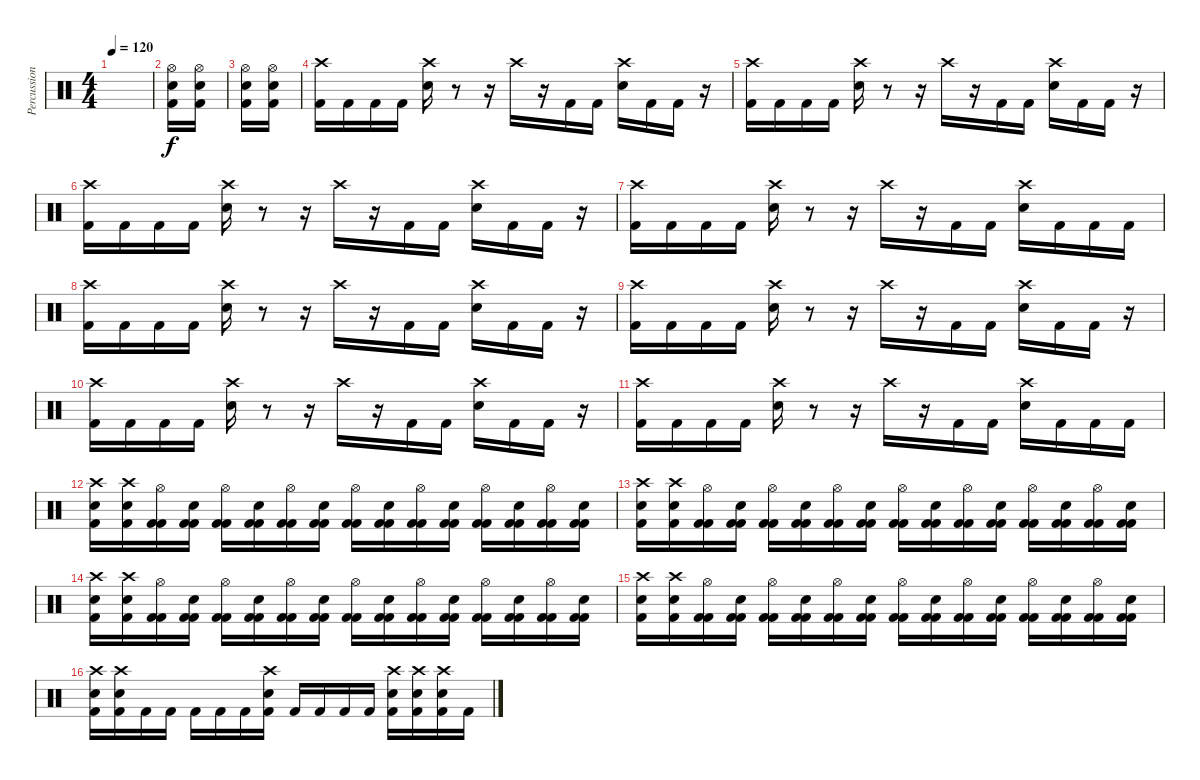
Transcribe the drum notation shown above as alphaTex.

\track ("Percussion" "Percussion") {instrument percussion}
\staff {score}
\articulation defaults
\ts (4 4)
\tempo 120
\clef neutral
\ks c
|
("Hi-Hat (open)" "Kick (hit) 2" "Electric Snare (hit)").16 ("Hi-Hat (open)" "Kick (hit) 2" "Electric Snare (hit)").16 |
("Hi-Hat (open)" "Kick (hit) 2" "Electric Snare (hit)").16 ("Hi-Hat (open)" "Kick (hit) 2" "Electric Snare (hit)").16 |
("Crash high (hit)" "Kick (hit) 2").16 "Kick (hit) 2".16 "Kick (hit) 2".16 "Kick (hit) 2".16 ("Crash high (hit)" "Electric Snare (hit)").16 r.8 r.16 "Crash high (hit)".16 r.16 "Kick (hit) 2".16 "Kick (hit) 2".16 ("Crash high (hit)" "Electric Snare (hit)").16 "Kick (hit) 2".16 "Kick (hit) 2".16 r.16 |
("Crash high (hit)" "Kick (hit) 2").16 "Kick (hit) 2".16 "Kick (hit) 2".16 "Kick (hit) 2".16 ("Crash high (hit)" "Electric Snare (hit)").16 r.8 r.16 "Crash high (hit)".16 r.16 "Kick (hit) 2".16 "Kick (hit) 2".16 ("Crash high (hit)" "Electric Snare (hit)").16 "Kick (hit) 2".16 "Kick (hit) 2".16 r.16 |
("Crash high (hit)" "Kick (hit) 2").16 "Kick (hit) 2".16 "Kick (hit) 2".16 "Kick (hit) 2".16 ("Crash high (hit)" "Electric Snare (hit)").16 r.8 r.16 "Crash high (hit)".16 r.16 "Kick (hit) 2".16 "Kick (hit) 2".16 ("Crash high (hit)" "Electric Snare (hit)").16 "Kick (hit) 2".16 "Kick (hit) 2".16 r.16 |
("Crash high (hit)" "Kick (hit) 2").16 "Kick (hit) 2".16 "Kick (hit) 2".16 "Kick (hit) 2".16 ("Crash high (hit)" "Electric Snare (hit)").16 r.8 r.16 "Crash high (hit)".16 r.16 "Kick (hit) 2".16 "Kick (hit) 2".16 ("Crash high (hit)" "Electric Snare (hit)").16 "Kick (hit) 2".16 "Kick (hit) 2".16 "Kick (hit) 2".16 |
("Crash high (hit)" "Kick (hit) 2").16 "Kick (hit) 2".16 "Kick (hit) 2".16 "Kick (hit) 2".16 ("Crash high (hit)" "Electric Snare (hit)").16 r.8 r.16 "Crash high (hit)".16 r.16 "Kick (hit) 2".16 "Kick (hit) 2".16 ("Crash high (hit)" "Electric Snare (hit)").16 "Kick (hit) 2".16 "Kick (hit) 2".16 r.16 |
("Crash high (hit)" "Kick (hit) 2").16 "Kick (hit) 2".16 "Kick (hit) 2".16 "Kick (hit) 2".16 ("Crash high (hit)" "Electric Snare (hit)").16 r.8 r.16 "Crash high (hit)".16 r.16 "Kick (hit) 2".16 "Kick (hit) 2".16 ("Crash high (hit)" "Electric Snare (hit)").16 "Kick (hit) 2".16 "Kick (hit) 2".16 r.16 |
("Crash high (hit)" "Kick (hit) 2").16 "Kick (hit) 2".16 "Kick (hit) 2".16 "Kick (hit) 2".16 ("Crash high (hit)" "Electric Snare (hit)").16 r.8 r.16 "Crash high (hit)".16 r.16 "Kick (hit) 2".16 "Kick (hit) 2".16 ("Crash high (hit)" "Electric Snare (hit)").16 "Kick (hit) 2".16 "Kick (hit) 2".16 r.16 |
("Crash high (hit)" "Kick (hit) 2").16 "Kick (hit) 2".16 "Kick (hit) 2".16 "Kick (hit) 2".16 ("Crash high (hit)" "Electric Snare (hit)").16 r.8 r.16 "Crash high (hit)".16 r.16 "Kick (hit) 2".16 "Kick (hit) 2".16 ("Crash high (hit)" "Electric Snare (hit)").16 "Kick (hit) 2".16 "Kick (hit) 2".16 "Kick (hit) 2".16 |
("Crash high (hit)" "Electric Snare (hit)" "Kick (hit) 2").16 ("Crash high (hit)" "Electric Snare (hit)" "Kick (hit) 2").16 ("Kick (hit) 2" "Hi-Hat (open)" "Kick (hit) 2").16 ("Kick (hit) 2" "Electric Snare (hit)" "Kick (hit) 2").16 ("Kick (hit) 2" "Hi-Hat (open)" "Kick (hit) 2").16 ("Kick (hit) 2" "Electric Snare (hit)" "Kick (hit) 2").16 ("Kick (hit) 2" "Hi-Hat (open)" "Kick (hit) 2").16 ("Kick (hit) 2" "Electric Snare (hit)" "Kick (hit) 2").16 ("Kick (hit) 2" "Hi-Hat (open)" "Kick (hit) 2").16 ("Kick (hit) 2" "Electric Snare (hit)" "Kick (hit) 2").16 ("Kick (hit) 2" "Hi-Hat (open)" "Kick (hit) 2").16 ("Kick (hit) 2" "Electric Snare (hit)" "Kick (hit) 2").16 ("Kick (hit) 2" "Hi-Hat (open)" "Kick (hit) 2").16 ("Kick (hit) 2" "Electric Snare (hit)" "Kick (hit) 2").16 ("Kick (hit) 2" "Hi-Hat (open)" "Kick (hit) 2").16 ("Kick (hit) 2" "Electric Snare (hit)" "Kick (hit) 2").16 |
("Crash high (hit)" "Electric Snare (hit)" "Kick (hit) 2").16 ("Crash high (hit)" "Electric Snare (hit)" "Kick (hit) 2").16 ("Kick (hit) 2" "Hi-Hat (open)" "Kick (hit) 2").16 ("Kick (hit) 2" "Electric Snare (hit)" "Kick (hit) 2").16 ("Kick (hit) 2" "Hi-Hat (open)" "Kick (hit) 2").16 ("Kick (hit) 2" "Electric Snare (hit)" "Kick (hit) 2").16 ("Kick (hit) 2" "Hi-Hat (open)" "Kick (hit) 2").16 ("Kick (hit) 2" "Electric Snare (hit)" "Kick (hit) 2").16 ("Kick (hit) 2" "Hi-Hat (open)" "Kick (hit) 2").16 ("Kick (hit) 2" "Electric Snare (hit)" "Kick (hit) 2").16 ("Kick (hit) 2" "Hi-Hat (open)" "Kick (hit) 2").16 ("Kick (hit) 2" "Electric Snare (hit)" "Kick (hit) 2").16 ("Kick (hit) 2" "Hi-Hat (open)" "Kick (hit) 2").16 ("Kick (hit) 2" "Electric Snare (hit)" "Kick (hit) 2").16 ("Kick (hit) 2" "Hi-Hat (open)" "Kick (hit) 2").16 ("Kick (hit) 2" "Electric Snare (hit)" "Kick (hit) 2").16 |
("Crash high (hit)" "Electric Snare (hit)" "Kick (hit) 2").16 ("Crash high (hit)" "Electric Snare (hit)" "Kick (hit) 2").16 ("Kick (hit) 2" "Hi-Hat (open)" "Kick (hit) 2").16 ("Kick (hit) 2" "Electric Snare (hit)" "Kick (hit) 2").16 ("Kick (hit) 2" "Hi-Hat (open)" "Kick (hit) 2").16 ("Kick (hit) 2" "Electric Snare (hit)" "Kick (hit) 2").16 ("Kick (hit) 2" "Hi-Hat (open)" "Kick (hit) 2").16 ("Kick (hit) 2" "Electric Snare (hit)" "Kick (hit) 2").16 ("Kick (hit) 2" "Hi-Hat (open)" "Kick (hit) 2").16 ("Kick (hit) 2" "Electric Snare (hit)" "Kick (hit) 2").16 ("Kick (hit) 2" "Hi-Hat (open)" "Kick (hit) 2").16 ("Kick (hit) 2" "Electric Snare (hit)" "Kick (hit) 2").16 ("Kick (hit) 2" "Hi-Hat (open)" "Kick (hit) 2").16 ("Kick (hit) 2" "Electric Snare (hit)" "Kick (hit) 2").16 ("Kick (hit) 2" "Hi-Hat (open)" "Kick (hit) 2").16 ("Kick (hit) 2" "Electric Snare (hit)" "Kick (hit) 2").16 |
("Crash high (hit)" "Electric Snare (hit)" "Kick (hit) 2").16 ("Crash high (hit)" "Electric Snare (hit)" "Kick (hit) 2").16 ("Kick (hit) 2" "Hi-Hat (open)" "Kick (hit) 2").16 ("Kick (hit) 2" "Electric Snare (hit)" "Kick (hit) 2").16 ("Kick (hit) 2" "Hi-Hat (open)" "Kick (hit) 2").16 ("Kick (hit) 2" "Electric Snare (hit)" "Kick (hit) 2").16 ("Kick (hit) 2" "Hi-Hat (open)" "Kick (hit) 2").16 ("Kick (hit) 2" "Electric Snare (hit)" "Kick (hit) 2").16 ("Kick (hit) 2" "Hi-Hat (open)" "Kick (hit) 2").16 ("Kick (hit) 2" "Electric Snare (hit)" "Kick (hit) 2").16 ("Kick (hit) 2" "Hi-Hat (open)" "Kick (hit) 2").16 ("Kick (hit) 2" "Electric Snare (hit)" "Kick (hit) 2").16 ("Kick (hit) 2" "Hi-Hat (open)" "Kick (hit) 2").16 ("Kick (hit) 2" "Electric Snare (hit)" "Kick (hit) 2").16 ("Kick (hit) 2" "Hi-Hat (open)" "Kick (hit) 2").16 ("Kick (hit) 2" "Electric Snare (hit)" "Kick (hit) 2").16 |
("Crash high (hit)" "Electric Snare (hit)" "Kick (hit) 2").16 ("Crash high (hit)" "Electric Snare (hit)" "Kick (hit) 2").16 "Kick (hit) 2".16 "Kick (hit) 2".16 "Kick (hit) 2".16 "Kick (hit) 2".16 "Kick (hit) 2".16 ("Crash high (hit)" "Electric Snare (hit)" "Kick (hit) 2").16 "Kick (hit) 2".16 "Kick (hit) 2".16 "Kick (hit) 2".16 "Kick (hit) 2".16 ("Crash high (hit)" "Electric Snare (hit)" "Kick (hit) 2").16 ("Crash high (hit)" "Electric Snare (hit)" "Kick (hit) 2").16 ("Crash high (hit)" "Electric Snare (hit)" "Kick (hit) 2").16 "Kick (hit) 2".16
